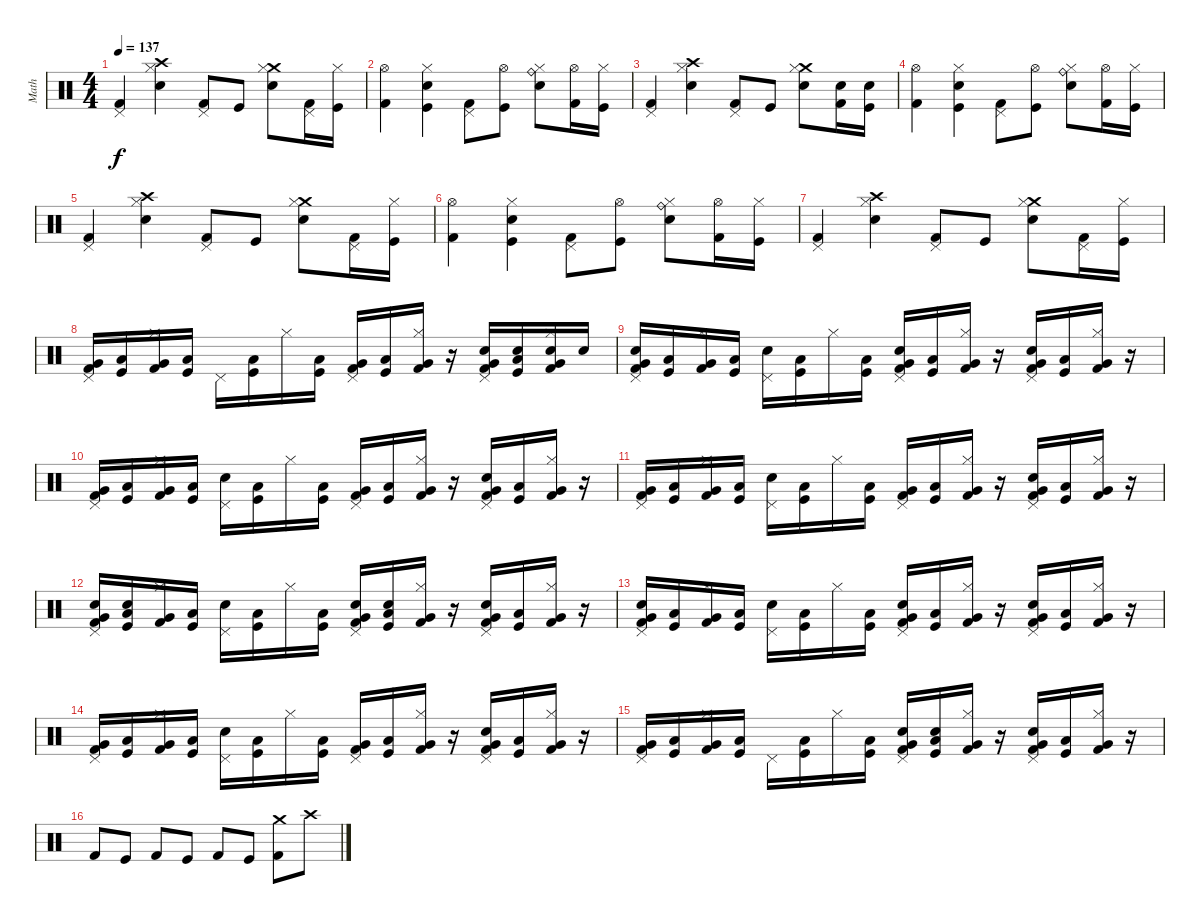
\track ("Math" "Math") {instrument percussion}
\staff {score}
\articulation defaults
\ts (4 4)
\tempo 137
\clef neutral
\ks c
("Pedal Hi-Hat (hit)" "Kick (hit) 2").4{dy f} ("Crash high (hit)" "Hi-Hat (closed)" "Snare (hit) 2").4 ("Pedal Hi-Hat (hit)" "Kick (hit) 2").8 "Kick (hit)".8 ("Crash medium (hit)" "Hi-Hat (closed)" "Snare (hit) 2").8 ("Pedal Hi-Hat (hit)" "Kick (hit) 2").16 ("Hi-Hat (closed)" "Kick (hit)").16 |
("Hi-Hat (open)" "Kick (hit) 2").4 ("Kick (hit)" "Hi-Hat (closed)" "Snare (hit) 2").4 ("Pedal Hi-Hat (hit)" "Kick (hit) 2").8 ("Hi-Hat (open)" "Kick (hit)").8 ("Ride (bell)" "Hi-Hat (closed)" "Snare (hit) 2").8 ("Hi-Hat (open)" "Kick (hit) 2").16 ("Hi-Hat (closed)" "Kick (hit)").16 |
("Pedal Hi-Hat (hit)" "Kick (hit) 2").4 ("Crash high (hit)" "Hi-Hat (closed)" "Snare (hit) 2").4 ("Pedal Hi-Hat (hit)" "Kick (hit) 2").8 "Kick (hit)".8 ("Crash medium (hit)" "Hi-Hat (closed)" "Snare (hit) 2").8 ("Electric Snare (hit)" "Kick (hit) 2").16 ("Electric Snare (hit)" "Kick (hit)").16 |
("Hi-Hat (open)" "Kick (hit) 2").4 ("Kick (hit)" "Hi-Hat (closed)" "Snare (hit) 2").4 ("Pedal Hi-Hat (hit)" "Kick (hit) 2").8 ("Hi-Hat (open)" "Kick (hit)").8 ("Ride (bell)" "Hi-Hat (closed)" "Snare (hit) 2").8 ("Hi-Hat (open)" "Kick (hit) 2").16 ("Hi-Hat (closed)" "Kick (hit)").16 |
("Pedal Hi-Hat (hit)" "Kick (hit) 2").4 ("Crash high (hit)" "Hi-Hat (closed)" "Snare (hit) 2").4 ("Pedal Hi-Hat (hit)" "Kick (hit) 2").8 "Kick (hit)".8 ("Crash medium (hit)" "Hi-Hat (closed)" "Snare (hit) 2").8 ("Pedal Hi-Hat (hit)" "Kick (hit) 2").16 ("Hi-Hat (closed)" "Kick (hit)").16 |
("Hi-Hat (open)" "Kick (hit) 2").4 ("Kick (hit)" "Hi-Hat (closed)" "Snare (hit) 2").4 ("Pedal Hi-Hat (hit)" "Kick (hit) 2").8 ("Hi-Hat (open)" "Kick (hit)").8 ("Ride (bell)" "Hi-Hat (closed)" "Snare (hit) 2").8 ("Hi-Hat (open)" "Kick (hit) 2").16 ("Hi-Hat (closed)" "Kick (hit)").16 |
("Pedal Hi-Hat (hit)" "Kick (hit) 2").4 ("Crash high (hit)" "Hi-Hat (closed)" "Snare (hit) 2").4 ("Pedal Hi-Hat (hit)" "Kick (hit) 2").8 "Kick (hit)".8 ("Crash medium (hit)" "Hi-Hat (closed)" "Snare (hit) 2").8 ("Pedal Hi-Hat (hit)" "Kick (hit) 2").16 ("Hi-Hat (closed)" "Kick (hit)").16 |
("Pedal Hi-Hat (hit)" "Very Low Tom (hit)" "Kick (hit) 2").16 ("Low Tom (hit)" "Kick (hit)").16 ("Hi-Hat (closed)" "Very Low Tom (hit)" "Kick (hit) 2").16 ("Low Tom (hit)" "Kick (hit)").16 "Pedal Hi-Hat (hit)".16 ("Low Tom (hit)" "Kick (hit)").16 "Hi-Hat (closed)".16 ("Low Tom (hit)" "Kick (hit)").16 ("Pedal Hi-Hat (hit)" "Very Low Tom (hit)" "Kick (hit) 2").16 ("Low Tom (hit)" "Kick (hit)").16 ("Hi-Hat (closed)" "Very Low Tom (hit)" "Kick (hit) 2").16 r.16 ("Pedal Hi-Hat (hit)" "Very Low Tom (hit)" "Kick (hit) 2" "Snare (hit) 2").16 ("Low Tom (hit)" "Kick (hit)" "Snare (hit) 2").16 ("Hi-Hat (closed)" "Very Low Tom (hit)" "Kick (hit) 2" "Snare (hit) 2").16 "Snare (hit) 2".16 |
("Pedal Hi-Hat (hit)" "Very Low Tom (hit)" "Kick (hit) 2" "Snare (hit) 2").16 ("Low Tom (hit)" "Kick (hit)").16 ("Hi-Hat (closed)" "Very Low Tom (hit)" "Kick (hit) 2").16 ("Low Tom (hit)" "Kick (hit)").16 ("Pedal Hi-Hat (hit)" "Snare (hit) 2").16 ("Low Tom (hit)" "Kick (hit)").16 "Hi-Hat (closed)".16 ("Low Tom (hit)" "Kick (hit)").16 ("Pedal Hi-Hat (hit)" "Very Low Tom (hit)" "Kick (hit) 2" "Snare (hit) 2").16 ("Low Tom (hit)" "Kick (hit)").16 ("Hi-Hat (closed)" "Very Low Tom (hit)" "Kick (hit) 2").16 r.16 ("Pedal Hi-Hat (hit)" "Very Low Tom (hit)" "Kick (hit) 2" "Snare (hit) 2").16 ("Low Tom (hit)" "Kick (hit)").16 ("Hi-Hat (closed)" "Very Low Tom (hit)" "Kick (hit) 2").16 r.16 |
("Pedal Hi-Hat (hit)" "Very Low Tom (hit)" "Kick (hit) 2").16 ("Low Tom (hit)" "Kick (hit)").16 ("Hi-Hat (closed)" "Very Low Tom (hit)" "Kick (hit) 2").16 ("Low Tom (hit)" "Kick (hit)").16 ("Pedal Hi-Hat (hit)" "Snare (hit) 2").16 ("Low Tom (hit)" "Kick (hit)").16 "Hi-Hat (closed)".16 ("Low Tom (hit)" "Kick (hit)").16 ("Pedal Hi-Hat (hit)" "Very Low Tom (hit)" "Kick (hit) 2").16 ("Low Tom (hit)" "Kick (hit)").16 ("Hi-Hat (closed)" "Very Low Tom (hit)" "Kick (hit) 2").16 r.16 ("Pedal Hi-Hat (hit)" "Very Low Tom (hit)" "Kick (hit) 2" "Snare (hit) 2").16 ("Low Tom (hit)" "Kick (hit)").16 ("Hi-Hat (closed)" "Very Low Tom (hit)" "Kick (hit) 2").16 r.16 |
("Pedal Hi-Hat (hit)" "Very Low Tom (hit)" "Kick (hit) 2").16 ("Low Tom (hit)" "Kick (hit)").16 ("Hi-Hat (closed)" "Very Low Tom (hit)" "Kick (hit) 2").16 ("Low Tom (hit)" "Kick (hit)").16 ("Pedal Hi-Hat (hit)" "Snare (hit) 2").16 ("Low Tom (hit)" "Kick (hit)").16 "Hi-Hat (closed)".16 ("Low Tom (hit)" "Kick (hit)").16 ("Pedal Hi-Hat (hit)" "Very Low Tom (hit)" "Kick (hit) 2").16 ("Low Tom (hit)" "Kick (hit)").16 ("Hi-Hat (closed)" "Very Low Tom (hit)" "Kick (hit) 2").16 r.16 ("Pedal Hi-Hat (hit)" "Very Low Tom (hit)" "Kick (hit) 2" "Snare (hit) 2").16 ("Low Tom (hit)" "Kick (hit)").16 ("Hi-Hat (closed)" "Very Low Tom (hit)" "Kick (hit) 2").16 r.16 |
("Pedal Hi-Hat (hit)" "Very Low Tom (hit)" "Kick (hit) 2" "Snare (hit) 2").16 ("Low Tom (hit)" "Kick (hit)" "Snare (hit) 2").16 ("Hi-Hat (closed)" "Very Low Tom (hit)" "Kick (hit) 2").16 ("Low Tom (hit)" "Kick (hit)").16 ("Pedal Hi-Hat (hit)" "Snare (hit) 2").16 ("Low Tom (hit)" "Kick (hit)").16 "Hi-Hat (closed)".16 ("Low Tom (hit)" "Kick (hit)").16 ("Pedal Hi-Hat (hit)" "Very Low Tom (hit)" "Kick (hit) 2" "Snare (hit) 2").16 ("Low Tom (hit)" "Kick (hit)" "Snare (hit) 2").16 ("Hi-Hat (closed)" "Very Low Tom (hit)" "Kick (hit) 2").16 r.16 ("Pedal Hi-Hat (hit)" "Very Low Tom (hit)" "Kick (hit) 2" "Snare (hit) 2").16 ("Low Tom (hit)" "Kick (hit)").16 ("Hi-Hat (closed)" "Very Low Tom (hit)" "Kick (hit) 2").16 r.16 |
("Pedal Hi-Hat (hit)" "Very Low Tom (hit)" "Kick (hit) 2" "Snare (hit) 2").16 ("Low Tom (hit)" "Kick (hit)").16 ("Hi-Hat (closed)" "Very Low Tom (hit)" "Kick (hit) 2").16 ("Low Tom (hit)" "Kick (hit)").16 ("Pedal Hi-Hat (hit)" "Snare (hit) 2").16 ("Low Tom (hit)" "Kick (hit)").16 "Hi-Hat (closed)".16 ("Low Tom (hit)" "Kick (hit)").16 ("Pedal Hi-Hat (hit)" "Very Low Tom (hit)" "Kick (hit) 2" "Snare (hit) 2").16 ("Low Tom (hit)" "Kick (hit)").16 ("Hi-Hat (closed)" "Very Low Tom (hit)" "Kick (hit) 2").16 r.16 ("Pedal Hi-Hat (hit)" "Very Low Tom (hit)" "Kick (hit) 2" "Snare (hit) 2").16 ("Low Tom (hit)" "Kick (hit)").16 ("Hi-Hat (closed)" "Very Low Tom (hit)" "Kick (hit) 2").16 r.16 |
("Pedal Hi-Hat (hit)" "Very Low Tom (hit)" "Kick (hit) 2").16 ("Low Tom (hit)" "Kick (hit)").16 ("Hi-Hat (closed)" "Very Low Tom (hit)" "Kick (hit) 2").16 ("Low Tom (hit)" "Kick (hit)").16 ("Pedal Hi-Hat (hit)" "Snare (hit) 2").16 ("Low Tom (hit)" "Kick (hit)").16 "Hi-Hat (closed)".16 ("Low Tom (hit)" "Kick (hit)").16 ("Pedal Hi-Hat (hit)" "Very Low Tom (hit)" "Kick (hit) 2").16 ("Low Tom (hit)" "Kick (hit)").16 ("Hi-Hat (closed)" "Very Low Tom (hit)" "Kick (hit) 2").16 r.16 ("Pedal Hi-Hat (hit)" "Very Low Tom (hit)" "Kick (hit) 2" "Snare (hit) 2").16 ("Low Tom (hit)" "Kick (hit)").16 ("Hi-Hat (closed)" "Very Low Tom (hit)" "Kick (hit) 2").16 r.16 |
("Pedal Hi-Hat (hit)" "Very Low Tom (hit)" "Kick (hit) 2").16 ("Low Tom (hit)" "Kick (hit)").16 ("Hi-Hat (closed)" "Very Low Tom (hit)" "Kick (hit) 2").16 ("Low Tom (hit)" "Kick (hit)").16 "Pedal Hi-Hat (hit)".16 ("Low Tom (hit)" "Kick (hit)").16 "Hi-Hat (closed)".16 ("Low Tom (hit)" "Kick (hit)").16 ("Pedal Hi-Hat (hit)" "Very Low Tom (hit)" "Kick (hit) 2" "Snare (hit) 2").16 ("Low Tom (hit)" "Kick (hit)" "Snare (hit) 2").16 ("Hi-Hat (closed)" "Very Low Tom (hit)" "Kick (hit) 2").16 r.16 ("Pedal Hi-Hat (hit)" "Very Low Tom (hit)" "Kick (hit) 2" "Snare (hit) 2").16 ("Low Tom (hit)" "Kick (hit)").16 ("Hi-Hat (closed)" "Very Low Tom (hit)" "Kick (hit) 2").16 r.16 |
"Kick (hit) 2".8 "Kick (hit)".8 "Kick (hit) 2".8 "Kick (hit)".8 "Kick (hit) 2".8 "Kick (hit)".8 ("Crash medium (hit)" "Kick (hit) 2").8 "Crash high (hit)".8
